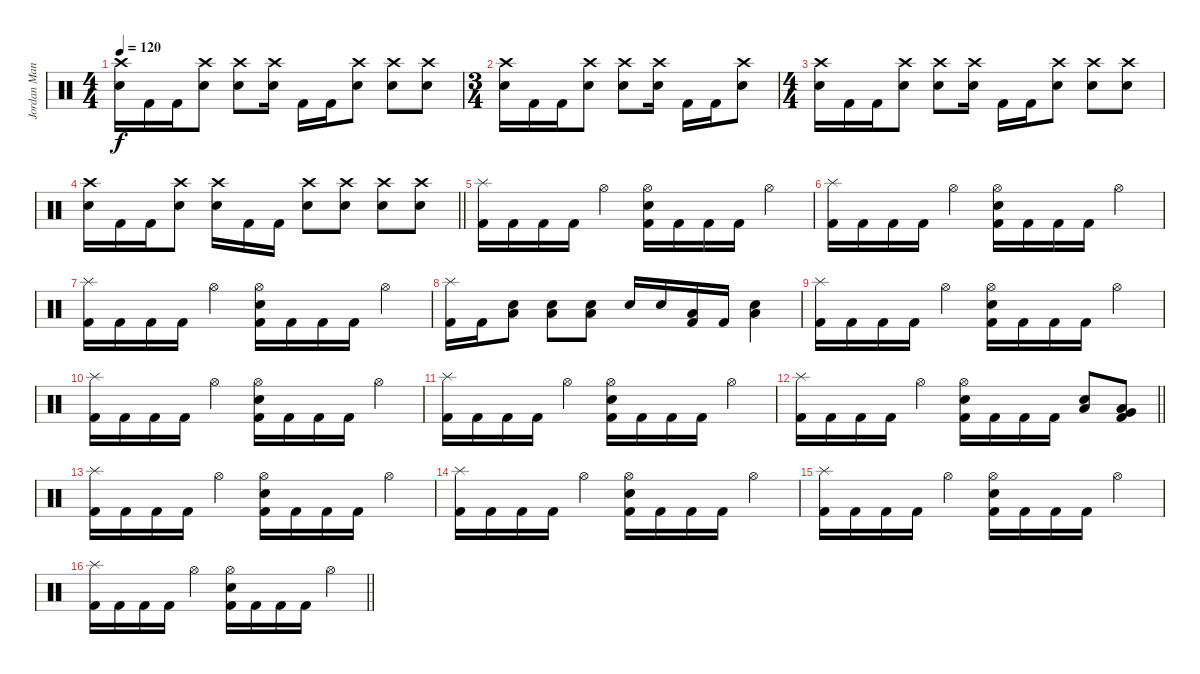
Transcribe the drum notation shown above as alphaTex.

\track ("Jordan Mancino" "Jordan Man") {instrument percussion}
\staff
\articulation defaults
\ts (4 4)
\tempo 120
\clef neutral
\ks c
("Crash high (hit)" "Snare (hit) 2").16{dy f} "Kick (hit) 2".16 "Kick (hit) 2".16 ("Crash high (hit)" "Snare (hit) 2").8 ("Crash high (hit)" "Snare (hit) 2").8 ("Crash high (hit)" "Snare (hit) 2").16 "Kick (hit) 2".16 "Kick (hit) 2".16 ("Crash high (hit)" "Snare (hit) 2").8 ("Crash high (hit)" "Snare (hit) 2").8 ("Crash high (hit)" "Snare (hit) 2").8 |
\ts (3 4)
("Crash high (hit)" "Snare (hit) 2").16 "Kick (hit) 2".16 "Kick (hit) 2".16 ("Crash high (hit)" "Snare (hit) 2").8 ("Crash high (hit)" "Snare (hit) 2").8 ("Crash high (hit)" "Snare (hit) 2").16 "Kick (hit) 2".16 "Kick (hit) 2".16 ("Crash high (hit)" "Snare (hit) 2").8 |
\ts (4 4)
("Crash high (hit)" "Snare (hit) 2").16 "Kick (hit) 2".16 "Kick (hit) 2".16 ("Crash high (hit)" "Snare (hit) 2").8 ("Crash high (hit)" "Snare (hit) 2").8 ("Crash high (hit)" "Snare (hit) 2").16 "Kick (hit) 2".16 "Kick (hit) 2".16 ("Crash high (hit)" "Snare (hit) 2").8 ("Crash high (hit)" "Snare (hit) 2").8 ("Crash high (hit)" "Snare (hit) 2").8 |
\barLineRight lightlight
("Crash high (hit)" "Snare (hit) 2").16 "Kick (hit) 2".16 "Kick (hit) 2".16 ("Crash high (hit)" "Snare (hit) 2").8 ("Crash high (hit)" "Snare (hit) 2").16 "Kick (hit) 2".16 "Kick (hit) 2".16 ("Crash high (hit)" "Snare (hit) 2").8 ("Crash high (hit)" "Snare (hit) 2").8 ("Crash high (hit)" "Snare (hit) 2").8 ("Crash high (hit)" "Snare (hit) 2").8 |
\section ("" " ")
("Splash (hit)" "Kick (hit) 2").16 "Kick (hit) 2".16 "Kick (hit) 2".16 "Kick (hit) 2".16 "Hi-Hat (open)".4 ("Hi-Hat (open)" "Kick (hit) 2" "Snare (hit) 2").16 "Kick (hit) 2".16 "Kick (hit) 2".16 "Kick (hit) 2".16 "Hi-Hat (open)".4 |
("Splash (hit)" "Kick (hit) 2").16 "Kick (hit) 2".16 "Kick (hit) 2".16 "Kick (hit) 2".16 "Hi-Hat (open)".4 ("Hi-Hat (open)" "Kick (hit) 2" "Snare (hit) 2").16 "Kick (hit) 2".16 "Kick (hit) 2".16 "Kick (hit) 2".16 "Hi-Hat (open)".4 |
("Splash (hit)" "Kick (hit) 2").16 "Kick (hit) 2".16 "Kick (hit) 2".16 "Kick (hit) 2".16 "Hi-Hat (open)".4 ("Hi-Hat (open)" "Kick (hit) 2" "Snare (hit) 2").16 "Kick (hit) 2".16 "Kick (hit) 2".16 "Kick (hit) 2".16 "Hi-Hat (open)".4 |
("Splash (hit)" "Kick (hit) 2").16 "Kick (hit) 2".16 ("Snare (hit) 2" "Low Floor Tom (hit)").8 ("Snare (hit) 2" "Low Floor Tom (hit)").8 ("Snare (hit) 2" "Low Floor Tom (hit)").8 "Snare (hit) 2".16 "Snare (hit) 2".16 ("Kick (hit) 2" "Low Floor Tom (hit)").16 "Kick (hit) 2".16 ("Snare (hit) 2" "Low Floor Tom (hit)").4 |
("Splash (hit)" "Kick (hit) 2").16 "Kick (hit) 2".16 "Kick (hit) 2".16 "Kick (hit) 2".16 "Hi-Hat (open)".4 ("Hi-Hat (open)" "Kick (hit) 2" "Snare (hit) 2").16 "Kick (hit) 2".16 "Kick (hit) 2".16 "Kick (hit) 2".16 "Hi-Hat (open)".4 |
("Splash (hit)" "Kick (hit) 2").16 "Kick (hit) 2".16 "Kick (hit) 2".16 "Kick (hit) 2".16 "Hi-Hat (open)".4 ("Hi-Hat (open)" "Kick (hit) 2" "Snare (hit) 2").16 "Kick (hit) 2".16 "Kick (hit) 2".16 "Kick (hit) 2".16 "Hi-Hat (open)".4 |
("Splash (hit)" "Kick (hit) 2").16 "Kick (hit) 2".16 "Kick (hit) 2".16 "Kick (hit) 2".16 "Hi-Hat (open)".4 ("Hi-Hat (open)" "Kick (hit) 2" "Snare (hit) 2").16 "Kick (hit) 2".16 "Kick (hit) 2".16 "Kick (hit) 2".16 "Hi-Hat (open)".4 |
\barLineRight lightlight
("Splash (hit)" "Kick (hit) 2").16 "Kick (hit) 2".16 "Kick (hit) 2".16 "Kick (hit) 2".16 "Hi-Hat (open)".4 ("Hi-Hat (open)" "Kick (hit) 2" "Snare (hit) 2").16 "Kick (hit) 2".16 "Kick (hit) 2".16 "Kick (hit) 2".16 ("Snare (hit) 2" "Low Floor Tom (hit)").8 ("Kick (hit) 2" "Low Tom (hit)" "Very Low Tom (hit)").8 |
("Splash (hit)" "Kick (hit) 2").16 "Kick (hit) 2".16 "Kick (hit) 2".16 "Kick (hit) 2".16 "Hi-Hat (open)".4 ("Hi-Hat (open)" "Kick (hit) 2" "Snare (hit) 2").16 "Kick (hit) 2".16 "Kick (hit) 2".16 "Kick (hit) 2".16 "Hi-Hat (open)".4 |
("Splash (hit)" "Kick (hit) 2").16 "Kick (hit) 2".16 "Kick (hit) 2".16 "Kick (hit) 2".16 "Hi-Hat (open)".4 ("Hi-Hat (open)" "Kick (hit) 2" "Snare (hit) 2").16 "Kick (hit) 2".16 "Kick (hit) 2".16 "Kick (hit) 2".16 "Hi-Hat (open)".4 |
("Splash (hit)" "Kick (hit) 2").16 "Kick (hit) 2".16 "Kick (hit) 2".16 "Kick (hit) 2".16 "Hi-Hat (open)".4 ("Hi-Hat (open)" "Kick (hit) 2" "Snare (hit) 2").16 "Kick (hit) 2".16 "Kick (hit) 2".16 "Kick (hit) 2".16 "Hi-Hat (open)".4 |
\barLineRight lightlight
("Splash (hit)" "Kick (hit) 2").16 "Kick (hit) 2".16 "Kick (hit) 2".16 "Kick (hit) 2".16 "Hi-Hat (open)".4 ("Hi-Hat (open)" "Kick (hit) 2" "Snare (hit) 2").16 "Kick (hit) 2".16 "Kick (hit) 2".16 "Kick (hit) 2".16 "Hi-Hat (open)".4
